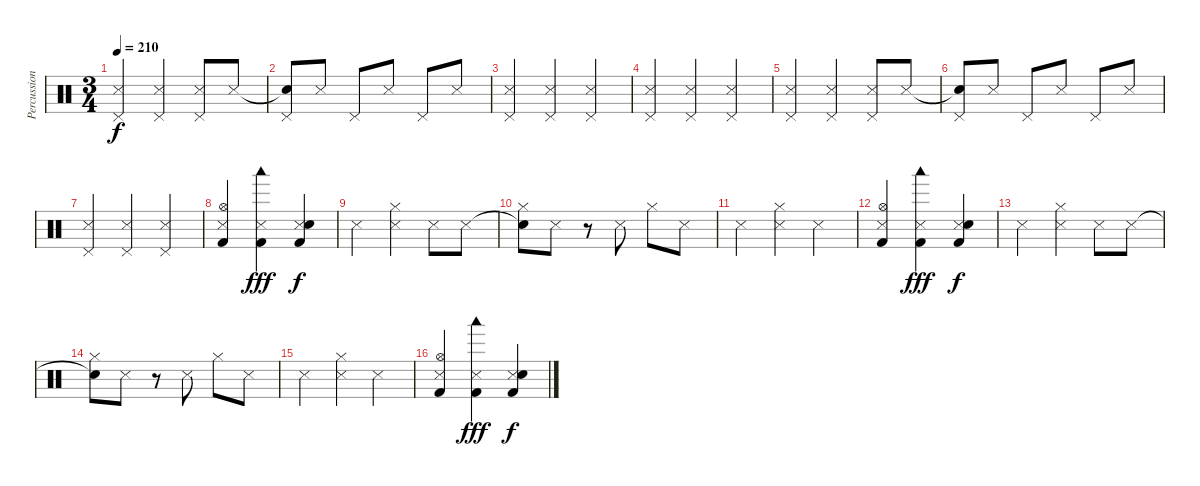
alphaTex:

\track ("Percussion" "Percussion") {instrument percussion}
\staff
\articulation defaults
\ts (3 4)
\tempo 210
\clef neutral
\ks c
("Snare (side stick) 3" "Pedal Hi-Hat (hit)").4{dy f} ("Snare (side stick) 3" "Pedal Hi-Hat (hit)").4 ("Snare (side stick) 3" "Pedal Hi-Hat (hit)").8 "Snare (side stick) 3".8 |
("Snare (hit)"{t} "Pedal Hi-Hat (hit)").8 "Snare (side stick) 3".8 "Pedal Hi-Hat (hit)".8 "Snare (side stick) 3".8 "Pedal Hi-Hat (hit)".8 "Snare (side stick) 3".8 |
("Snare (side stick) 3" "Pedal Hi-Hat (hit)").4 ("Snare (side stick) 3" "Pedal Hi-Hat (hit)").4 ("Snare (side stick) 3" "Pedal Hi-Hat (hit)").4 |
("Snare (side stick) 3" "Pedal Hi-Hat (hit)").4 ("Snare (side stick) 3" "Pedal Hi-Hat (hit)").4 ("Snare (side stick) 3" "Pedal Hi-Hat (hit)").4 |
("Snare (side stick) 3" "Pedal Hi-Hat (hit)").4 ("Snare (side stick) 3" "Pedal Hi-Hat (hit)").4 ("Snare (side stick) 3" "Pedal Hi-Hat (hit)").8 "Snare (side stick) 3".8 |
("Snare (hit)"{t} "Pedal Hi-Hat (hit)").8 "Snare (side stick) 3".8 "Pedal Hi-Hat (hit)".8 "Snare (side stick) 3".8 "Pedal Hi-Hat (hit)".8 "Snare (side stick) 3".8 |
("Snare (side stick) 3" "Pedal Hi-Hat (hit)").4 ("Snare (side stick) 3" "Pedal Hi-Hat (hit)").4 ("Snare (side stick) 3" "Pedal Hi-Hat (hit)").4 |
("Snare (side stick) 3" "Hi-Hat (open)" "Kick (hit) 2").4 ("Snare (side stick) 3" "Woodblock low (hit)" "Kick (hit) 2").4{dy fff} ("Snare (side stick) 3" "Snare (hit) 2" "Kick (hit) 2").4{dy f} |
"Snare (side stick) 3".4 ("Snare (side stick) 3" "Hi-Hat (closed)").4 "Snare (side stick) 3".8 "Snare (side stick) 3".8 |
("Snare (hit)"{t} "Hi-Hat (closed)").8 "Snare (side stick) 3".8 r.8 "Snare (side stick) 3".8 "Hi-Hat (closed)".8 "Snare (side stick) 3".8 |
"Snare (side stick) 3".4 ("Snare (side stick) 3" "Hi-Hat (closed)").4 "Snare (side stick) 3".4 |
("Snare (side stick) 3" "Hi-Hat (open)" "Kick (hit) 2").4 ("Snare (side stick) 3" "Woodblock low (hit)" "Kick (hit) 2").4{dy fff} ("Snare (side stick) 3" "Snare (hit) 2" "Kick (hit) 2").4{dy f} |
"Snare (side stick) 3".4 ("Snare (side stick) 3" "Hi-Hat (closed)").4 "Snare (side stick) 3".8 "Snare (side stick) 3".8 |
("Snare (hit)"{t} "Hi-Hat (closed)").8 "Snare (side stick) 3".8 r.8 "Snare (side stick) 3".8 "Hi-Hat (closed)".8 "Snare (side stick) 3".8 |
"Snare (side stick) 3".4 ("Snare (side stick) 3" "Hi-Hat (closed)").4 "Snare (side stick) 3".4 |
("Snare (side stick) 3" "Hi-Hat (open)" "Kick (hit) 2").4 ("Snare (side stick) 3" "Woodblock low (hit)" "Kick (hit) 2").4{dy fff} ("Snare (side stick) 3" "Snare (hit) 2" "Kick (hit) 2").4{dy f}
